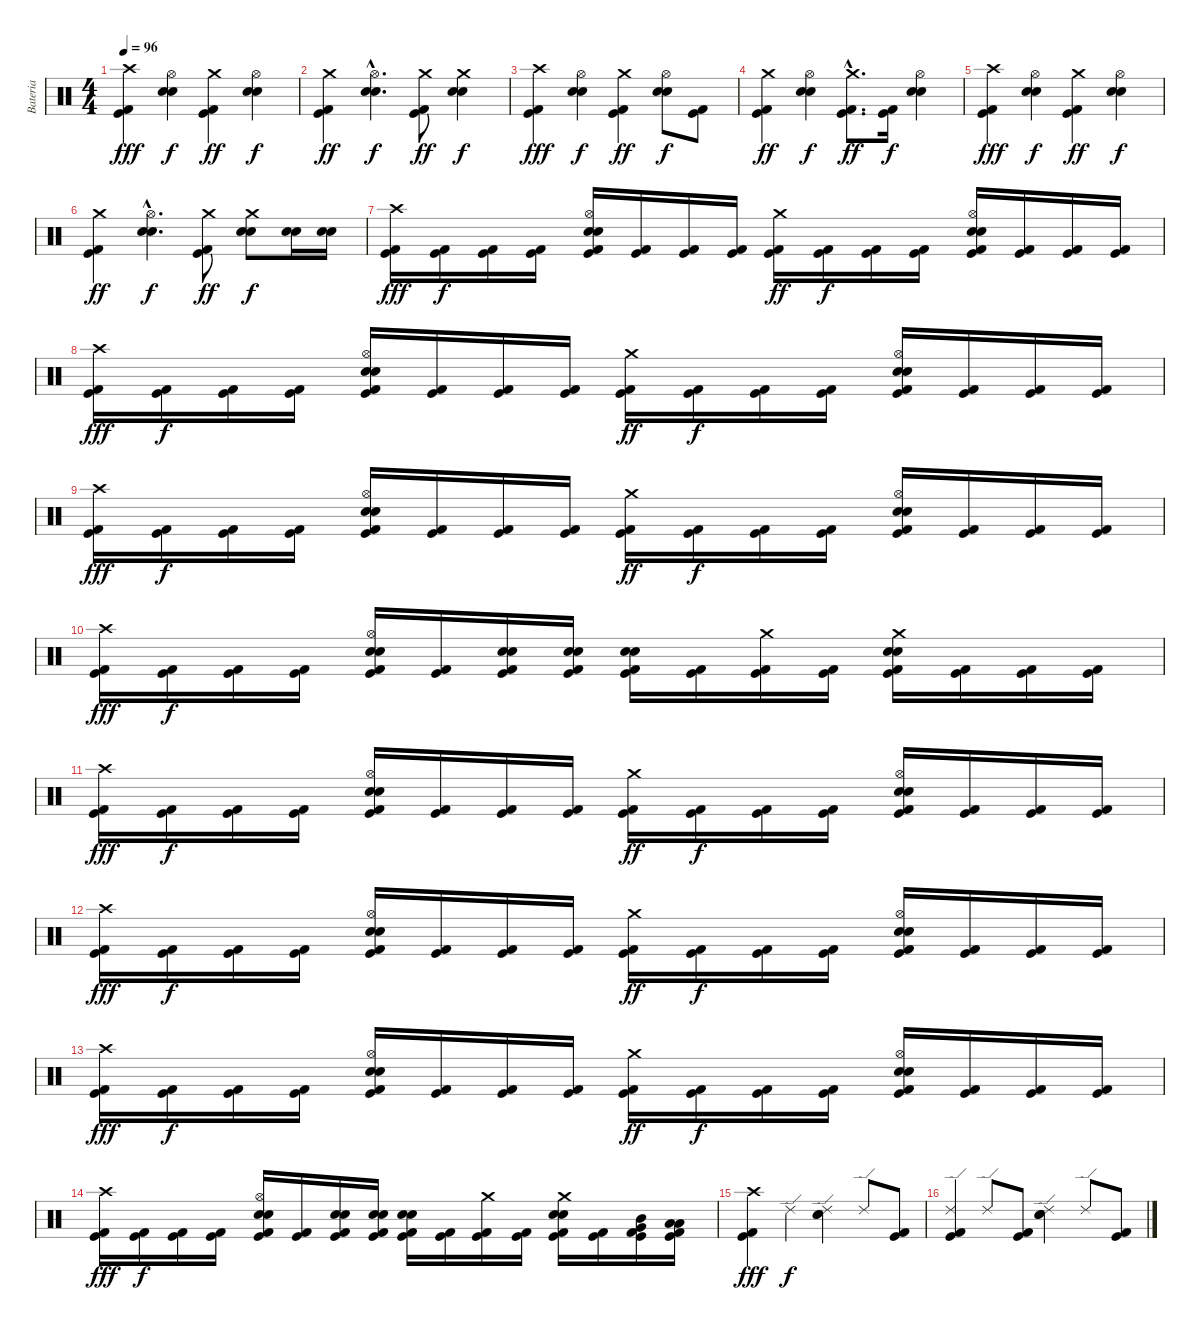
\track ("Bateria" "Bateria") {instrument percussion}
\staff {score}
\articulation defaults
\ts (4 4)
\tempo 96
\clef neutral
\ks c
("Crash high (hit)" "Kick (hit) 2" "Kick (hit)").4{dy fff} ("Hi-Hat (open)" "Electric Snare (hit)" "Snare (hit) 2").4{dy f} ("Crash medium (hit)" "Kick (hit) 2" "Kick (hit)").4{dy ff} ("Hi-Hat (open)" "Electric Snare (hit)" "Snare (hit) 2").4{dy f} |
("Crash medium (hit)" "Kick (hit) 2" "Kick (hit)").4{dy ff} ("Hi-Hat (open)"{hac} "Electric Snare (hit)"{hac} "Snare (hit) 2"{hac}).4{d dy f} ("Crash medium (hit)" "Kick (hit) 2" "Kick (hit)").8{dy ff} ("Crash medium (hit)" "Electric Snare (hit)" "Snare (hit) 2").4{dy f} |
("Crash high (hit)" "Kick (hit) 2" "Kick (hit)").4{dy fff} ("Hi-Hat (open)" "Electric Snare (hit)" "Snare (hit) 2").4{dy f} ("Crash medium (hit)" "Kick (hit) 2" "Kick (hit)").4{dy ff} ("Hi-Hat (open)" "Electric Snare (hit)" "Snare (hit) 2").8{dy f} ("Kick (hit) 2" "Kick (hit)").8 |
("Crash medium (hit)" "Kick (hit) 2" "Kick (hit)").4{dy ff} ("Hi-Hat (open)" "Electric Snare (hit)" "Snare (hit) 2").4{dy f} ("Crash medium (hit)"{hac} "Kick (hit) 2"{hac} "Kick (hit)"{hac}).8{d dy ff} ("Kick (hit) 2" "Kick (hit)").16{dy f} ("Hi-Hat (open)" "Electric Snare (hit)" "Snare (hit) 2").4 |
("Crash high (hit)" "Kick (hit) 2" "Kick (hit)").4{dy fff} ("Hi-Hat (open)" "Electric Snare (hit)" "Snare (hit) 2").4{dy f} ("Crash medium (hit)" "Kick (hit) 2" "Kick (hit)").4{dy ff} ("Hi-Hat (open)" "Electric Snare (hit)" "Snare (hit) 2").4{dy f} |
("Crash medium (hit)" "Kick (hit) 2" "Kick (hit)").4{dy ff} ("Hi-Hat (open)"{hac} "Electric Snare (hit)"{hac} "Snare (hit) 2"{hac}).4{d dy f} ("Crash medium (hit)" "Kick (hit) 2" "Kick (hit)").8{dy ff} ("Crash medium (hit)" "Electric Snare (hit)" "Snare (hit) 2").8{dy f} ("Electric Snare (hit)" "Snare (hit) 2").16 ("Electric Snare (hit)" "Snare (hit) 2").16 |
("Crash high (hit)" "Kick (hit) 2" "Kick (hit)").16{dy fff} ("Kick (hit) 2" "Kick (hit)").16{dy f} ("Kick (hit) 2" "Kick (hit)").16 ("Kick (hit) 2" "Kick (hit)").16 ("Hi-Hat (open)" "Electric Snare (hit)" "Snare (hit) 2" "Kick (hit) 2" "Kick (hit)").16 ("Kick (hit) 2" "Kick (hit)").16 ("Kick (hit) 2" "Kick (hit)").16 ("Kick (hit) 2" "Kick (hit)").16 ("Crash medium (hit)" "Kick (hit) 2" "Kick (hit)").16{dy ff} ("Kick (hit) 2" "Kick (hit)").16{dy f} ("Kick (hit) 2" "Kick (hit)").16 ("Kick (hit) 2" "Kick (hit)").16 ("Hi-Hat (open)" "Electric Snare (hit)" "Snare (hit) 2" "Kick (hit) 2" "Kick (hit)").16 ("Kick (hit) 2" "Kick (hit)").16 ("Kick (hit) 2" "Kick (hit)").16 ("Kick (hit) 2" "Kick (hit)").16 |
("Crash high (hit)" "Kick (hit) 2" "Kick (hit)").16{dy fff} ("Kick (hit) 2" "Kick (hit)").16{dy f} ("Kick (hit) 2" "Kick (hit)").16 ("Kick (hit) 2" "Kick (hit)").16 ("Hi-Hat (open)" "Electric Snare (hit)" "Snare (hit) 2" "Kick (hit) 2" "Kick (hit)").16 ("Kick (hit) 2" "Kick (hit)").16 ("Kick (hit) 2" "Kick (hit)").16 ("Kick (hit) 2" "Kick (hit)").16 ("Crash medium (hit)" "Kick (hit) 2" "Kick (hit)").16{dy ff} ("Kick (hit) 2" "Kick (hit)").16{dy f} ("Kick (hit) 2" "Kick (hit)").16 ("Kick (hit) 2" "Kick (hit)").16 ("Hi-Hat (open)" "Electric Snare (hit)" "Snare (hit) 2" "Kick (hit) 2" "Kick (hit)").16 ("Kick (hit) 2" "Kick (hit)").16 ("Kick (hit) 2" "Kick (hit)").16 ("Kick (hit) 2" "Kick (hit)").16 |
("Crash high (hit)" "Kick (hit) 2" "Kick (hit)").16{dy fff} ("Kick (hit) 2" "Kick (hit)").16{dy f} ("Kick (hit) 2" "Kick (hit)").16 ("Kick (hit) 2" "Kick (hit)").16 ("Hi-Hat (open)" "Electric Snare (hit)" "Snare (hit) 2" "Kick (hit) 2" "Kick (hit)").16 ("Kick (hit) 2" "Kick (hit)").16 ("Kick (hit) 2" "Kick (hit)").16 ("Kick (hit) 2" "Kick (hit)").16 ("Crash medium (hit)" "Kick (hit) 2" "Kick (hit)").16{dy ff} ("Kick (hit) 2" "Kick (hit)").16{dy f} ("Kick (hit) 2" "Kick (hit)").16 ("Kick (hit) 2" "Kick (hit)").16 ("Hi-Hat (open)" "Electric Snare (hit)" "Snare (hit) 2" "Kick (hit) 2" "Kick (hit)").16 ("Kick (hit) 2" "Kick (hit)").16 ("Kick (hit) 2" "Kick (hit)").16 ("Kick (hit) 2" "Kick (hit)").16 |
("Crash high (hit)" "Kick (hit) 2" "Kick (hit)").16{dy fff} ("Kick (hit) 2" "Kick (hit)").16{dy f} ("Kick (hit) 2" "Kick (hit)").16 ("Kick (hit) 2" "Kick (hit)").16 ("Hi-Hat (open)" "Electric Snare (hit)" "Snare (hit) 2" "Kick (hit) 2" "Kick (hit)").16 ("Kick (hit) 2" "Kick (hit)").16 ("Electric Snare (hit)" "Snare (hit) 2" "Kick (hit) 2" "Kick (hit)").16 ("Electric Snare (hit)" "Snare (hit) 2" "Kick (hit) 2" "Kick (hit)").16 ("Electric Snare (hit)" "Snare (hit) 2" "Kick (hit) 2" "Kick (hit)").16 ("Kick (hit) 2" "Kick (hit)").16 ("Crash medium (hit)" "Kick (hit) 2" "Kick (hit)").16 ("Kick (hit) 2" "Kick (hit)").16 ("Crash medium (hit)" "Electric Snare (hit)" "Snare (hit) 2" "Kick (hit) 2" "Kick (hit)").16 ("Kick (hit) 2" "Kick (hit)").16 ("Kick (hit) 2" "Kick (hit)").16 ("Kick (hit) 2" "Kick (hit)").16 |
("Crash high (hit)" "Kick (hit) 2" "Kick (hit)").16{dy fff} ("Kick (hit) 2" "Kick (hit)").16{dy f} ("Kick (hit) 2" "Kick (hit)").16 ("Kick (hit) 2" "Kick (hit)").16 ("Hi-Hat (open)" "Electric Snare (hit)" "Snare (hit) 2" "Kick (hit) 2" "Kick (hit)").16 ("Kick (hit) 2" "Kick (hit)").16 ("Kick (hit) 2" "Kick (hit)").16 ("Kick (hit) 2" "Kick (hit)").16 ("Crash medium (hit)" "Kick (hit) 2" "Kick (hit)").16{dy ff} ("Kick (hit) 2" "Kick (hit)").16{dy f} ("Kick (hit) 2" "Kick (hit)").16 ("Kick (hit) 2" "Kick (hit)").16 ("Hi-Hat (open)" "Electric Snare (hit)" "Snare (hit) 2" "Kick (hit) 2" "Kick (hit)").16 ("Kick (hit) 2" "Kick (hit)").16 ("Kick (hit) 2" "Kick (hit)").16 ("Kick (hit) 2" "Kick (hit)").16 |
("Crash high (hit)" "Kick (hit) 2" "Kick (hit)").16{dy fff} ("Kick (hit) 2" "Kick (hit)").16{dy f} ("Kick (hit) 2" "Kick (hit)").16 ("Kick (hit) 2" "Kick (hit)").16 ("Hi-Hat (open)" "Electric Snare (hit)" "Snare (hit) 2" "Kick (hit) 2" "Kick (hit)").16 ("Kick (hit) 2" "Kick (hit)").16 ("Kick (hit) 2" "Kick (hit)").16 ("Kick (hit) 2" "Kick (hit)").16 ("Crash medium (hit)" "Kick (hit) 2" "Kick (hit)").16{dy ff} ("Kick (hit) 2" "Kick (hit)").16{dy f} ("Kick (hit) 2" "Kick (hit)").16 ("Kick (hit) 2" "Kick (hit)").16 ("Hi-Hat (open)" "Electric Snare (hit)" "Snare (hit) 2" "Kick (hit) 2" "Kick (hit)").16 ("Kick (hit) 2" "Kick (hit)").16 ("Kick (hit) 2" "Kick (hit)").16 ("Kick (hit) 2" "Kick (hit)").16 |
("Crash high (hit)" "Kick (hit) 2" "Kick (hit)").16{dy fff} ("Kick (hit) 2" "Kick (hit)").16{dy f} ("Kick (hit) 2" "Kick (hit)").16 ("Kick (hit) 2" "Kick (hit)").16 ("Hi-Hat (open)" "Electric Snare (hit)" "Snare (hit) 2" "Kick (hit) 2" "Kick (hit)").16 ("Kick (hit) 2" "Kick (hit)").16 ("Kick (hit) 2" "Kick (hit)").16 ("Kick (hit) 2" "Kick (hit)").16 ("Crash medium (hit)" "Kick (hit) 2" "Kick (hit)").16{dy ff} ("Kick (hit) 2" "Kick (hit)").16{dy f} ("Kick (hit) 2" "Kick (hit)").16 ("Kick (hit) 2" "Kick (hit)").16 ("Hi-Hat (open)" "Electric Snare (hit)" "Snare (hit) 2" "Kick (hit) 2" "Kick (hit)").16 ("Kick (hit) 2" "Kick (hit)").16 ("Kick (hit) 2" "Kick (hit)").16 ("Kick (hit) 2" "Kick (hit)").16 |
("Crash high (hit)" "Kick (hit) 2" "Kick (hit)").16{dy fff} ("Kick (hit) 2" "Kick (hit)").16{dy f} ("Kick (hit) 2" "Kick (hit)").16 ("Kick (hit) 2" "Kick (hit)").16 ("Hi-Hat (open)" "Electric Snare (hit)" "Snare (hit) 2" "Kick (hit) 2" "Kick (hit)").16 ("Kick (hit) 2" "Kick (hit)").16 ("Electric Snare (hit)" "Snare (hit) 2" "Kick (hit) 2" "Kick (hit)").16 ("Electric Snare (hit)" "Snare (hit) 2" "Kick (hit) 2" "Kick (hit)").16 ("Electric Snare (hit)" "Snare (hit) 2" "Kick (hit) 2" "Kick (hit)").16 ("Kick (hit) 2" "Kick (hit)").16 ("Crash medium (hit)" "Kick (hit) 2" "Kick (hit)").16 ("Kick (hit) 2" "Kick (hit)").16 ("Crash medium (hit)" "Electric Snare (hit)" "Snare (hit) 2" "Kick (hit) 2" "Kick (hit)").16 ("Kick (hit) 2" "Kick (hit)").16 ("Mid Tom (hit)" "Very Low Tom (hit)" "Kick (hit) 2" "Kick (hit)").16 ("Low Tom (hit)" "Low Floor Tom (hit)" "Kick (hit) 2" "Kick (hit)").16 |
("Crash high (hit)" "Kick (hit) 2" "Kick (hit)").4{dy fff} "Ride (edge) 2".4{dy f} ("Ride (edge) 2" "Electric Snare (hit)" "Snare (hit) 2").4 "Ride (edge) 2".8 ("Kick (hit) 2" "Kick (hit)").8 |
("Ride (edge) 2" "Kick (hit) 2" "Kick (hit)").4 "Ride (edge) 2".8 ("Kick (hit) 2" "Kick (hit)").8 ("Ride (edge) 2" "Electric Snare (hit)" "Snare (hit) 2").4 "Ride (edge) 2".8 ("Kick (hit) 2" "Kick (hit)").8
